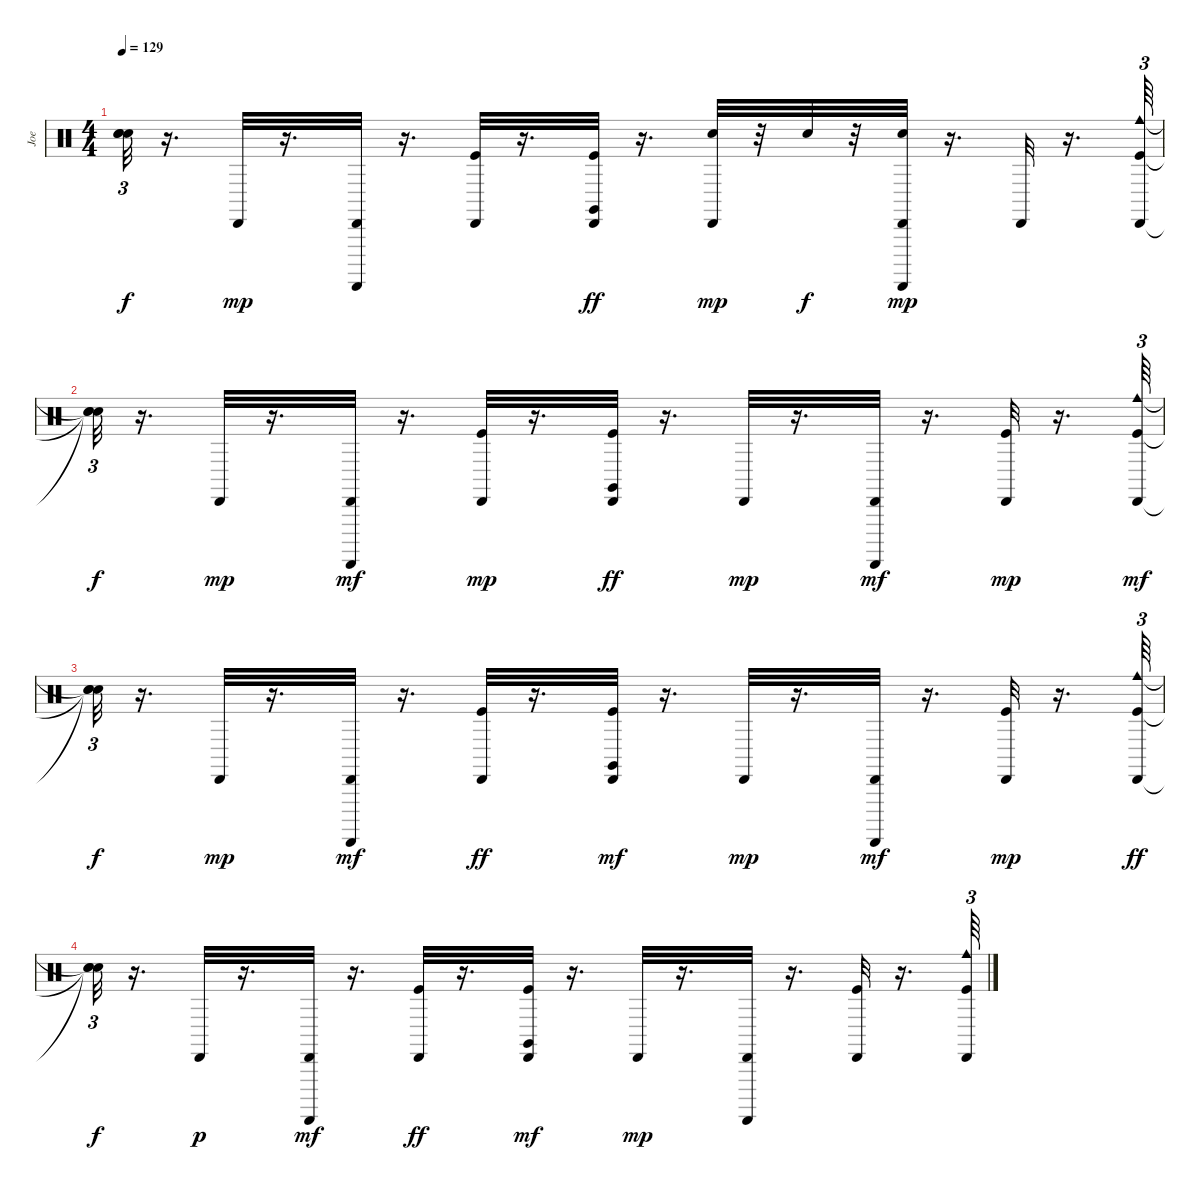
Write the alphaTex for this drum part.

\track ("Joe" "Joe") {instrument percussion}
\staff {score}
\articulation defaults
\ts (4 4)
\tempo 129
\clef neutral
\ks c
("Snare (hit)"{t} "Snare (hit)"{t} "Snare (hit)"{t}).32{tu (3 2) dy f} r.16{d} "Cabasa (hit)".32{dy mp} r.16{d} ("Guiro (scrap-return)" "Cabasa (hit)").32 r.16{d} ("Kick (hit)" "Cabasa (hit)").32 r.16{d} ("Cabasa (hit)" "Kick (hit)" "Claves (hit)").32{dy ff} r.16{d} ("Snare (hit) 2" "Cabasa (hit)").32{dy mp} r.32 "Snare (hit) 2".32{dy f} r.32 ("Guiro (scrap-return)" "Cabasa (hit)" "Snare (hit) 2").32{dy mp} r.16{d} "Cabasa (hit)".32 r.16{d} ("Cowbell medium (hit)" "Kick (hit)" "Cabasa (hit)").64{tu (3 2)} |
("Snare (hit)"{t} "Snare (hit)"{t} "Snare (hit)"{t}).32{tu (3 2) dy f} r.16{d} "Cabasa (hit)".32{dy mp} r.16{d} ("Cabasa (hit)" "Guiro (scrap-return)").32{dy mf} r.16{d} ("Kick (hit)" "Cabasa (hit)").32{dy mp} r.16{d} ("Cabasa (hit)" "Kick (hit)" "Claves (hit)").32{dy ff} r.16{d} "Cabasa (hit)".32{dy mp} r.16{d} ("Cabasa (hit)" "Guiro (scrap-return)").32{dy mf} r.16{d} ("Cabasa (hit)" "Kick (hit)").32{dy mp} r.16{d} ("Kick (hit)" "Cowbell medium (hit)" "Cabasa (hit)").64{tu (3 2) dy mf} |
("Snare (hit)"{t} "Snare (hit)"{t} "Snare (hit)"{t}).32{tu (3 2) dy f} r.16{d} "Cabasa (hit)".32{dy mp} r.16{d} ("Cabasa (hit)" "Guiro (scrap-return)").32{dy mf} r.16{d} ("Cabasa (hit)" "Kick (hit)").32{dy ff} r.16{d} ("Kick (hit)" "Cabasa (hit)" "Claves (hit)").32{dy mf} r.16{d} "Cabasa (hit)".32{dy mp} r.16{d} ("Guiro (scrap-return)" "Cabasa (hit)").32{dy mf} r.16{d} ("Cabasa (hit)" "Kick (hit)").32{dy mp} r.16{d} ("Cabasa (hit)" "Kick (hit)" "Cowbell medium (hit)").64{tu (3 2) dy ff} |
("Snare (hit)"{t} "Snare (hit)"{t} "Snare (hit)"{t}).32{tu (3 2) dy f} r.16{d} "Cabasa (hit)".32{dy p} r.16{d} ("Cabasa (hit)" "Guiro (scrap-return)").32{dy mf} r.16{d} ("Cabasa (hit)" "Kick (hit)").32{dy ff} r.16{d} ("Kick (hit)" "Cabasa (hit)" "Claves (hit)").32{dy mf} r.16{d} "Cabasa (hit)".32{dy mp} r.16{d} ("Guiro (scrap-return)" "Cabasa (hit)").32 r.16{d} ("Cabasa (hit)" "Kick (hit)").32 r.16{d} ("Cowbell medium (hit)" "Kick (hit)" "Cabasa (hit)").64{tu (3 2)}
